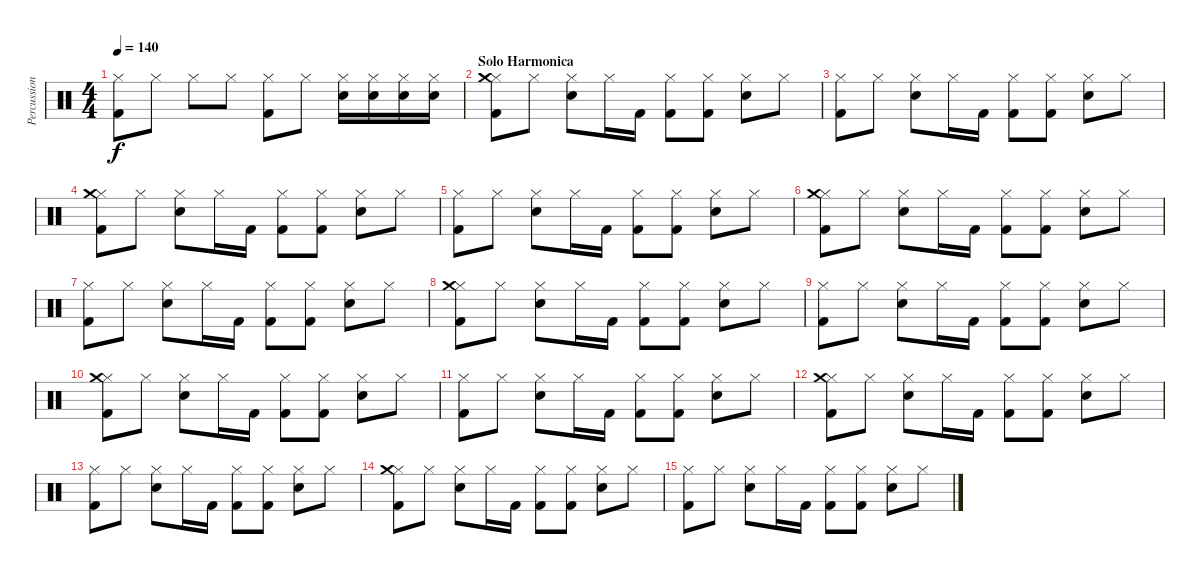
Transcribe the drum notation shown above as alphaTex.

\track ("Percussions" "Percussion") {instrument percussion}
\staff {score}
\articulation defaults
\ts (4 4)
\tempo 140
\clef neutral
\ks c
("Hi-Hat (closed)" "Kick (hit) 2").8{dy f} "Hi-Hat (closed)".8 "Hi-Hat (closed)".8 "Hi-Hat (closed)".8 ("Hi-Hat (closed)" "Kick (hit) 2").8 "Hi-Hat (closed)".8 ("Hi-Hat (closed)" "Electric Snare (hit)").16 ("Hi-Hat (closed)" "Electric Snare (hit)").16 ("Hi-Hat (closed)" "Electric Snare (hit)").16 ("Hi-Hat (closed)" "Electric Snare (hit)").16 |
\section ("" "Solo Harmonica")
("Hi-Hat (closed)" "Crash medium (hit)" "Kick (hit) 2").8 "Hi-Hat (closed)".8 ("Hi-Hat (closed)" "Electric Snare (hit)").8 "Hi-Hat (closed)".16 "Kick (hit) 2".16 ("Hi-Hat (closed)" "Kick (hit) 2").8 ("Hi-Hat (closed)" "Kick (hit) 2").8 ("Hi-Hat (closed)" "Electric Snare (hit)").8 "Hi-Hat (closed)".8 |
("Hi-Hat (closed)" "Kick (hit) 2").8 "Hi-Hat (closed)".8 ("Hi-Hat (closed)" "Electric Snare (hit)").8 "Hi-Hat (closed)".16 "Kick (hit) 2".16 ("Hi-Hat (closed)" "Kick (hit) 2").8 ("Hi-Hat (closed)" "Kick (hit) 2").8 ("Hi-Hat (closed)" "Electric Snare (hit)").8 "Hi-Hat (closed)".8 |
("Hi-Hat (closed)" "Crash medium (hit)" "Kick (hit) 2").8 "Hi-Hat (closed)".8 ("Hi-Hat (closed)" "Electric Snare (hit)").8 "Hi-Hat (closed)".16 "Kick (hit) 2".16 ("Hi-Hat (closed)" "Kick (hit) 2").8 ("Hi-Hat (closed)" "Kick (hit) 2").8 ("Hi-Hat (closed)" "Electric Snare (hit)").8 "Hi-Hat (closed)".8 |
("Hi-Hat (closed)" "Kick (hit) 2").8 "Hi-Hat (closed)".8 ("Hi-Hat (closed)" "Electric Snare (hit)").8 "Hi-Hat (closed)".16 "Kick (hit) 2".16 ("Hi-Hat (closed)" "Kick (hit) 2").8 ("Hi-Hat (closed)" "Kick (hit) 2").8 ("Hi-Hat (closed)" "Electric Snare (hit)").8 "Hi-Hat (closed)".8 |
("Hi-Hat (closed)" "Crash medium (hit)" "Kick (hit) 2").8 "Hi-Hat (closed)".8 ("Hi-Hat (closed)" "Electric Snare (hit)").8 "Hi-Hat (closed)".16 "Kick (hit) 2".16 ("Hi-Hat (closed)" "Kick (hit) 2").8 ("Hi-Hat (closed)" "Kick (hit) 2").8 ("Hi-Hat (closed)" "Electric Snare (hit)").8 "Hi-Hat (closed)".8 |
("Hi-Hat (closed)" "Kick (hit) 2").8 "Hi-Hat (closed)".8 ("Hi-Hat (closed)" "Electric Snare (hit)").8 "Hi-Hat (closed)".16 "Kick (hit) 2".16 ("Hi-Hat (closed)" "Kick (hit) 2").8 ("Hi-Hat (closed)" "Kick (hit) 2").8 ("Hi-Hat (closed)" "Electric Snare (hit)").8 "Hi-Hat (closed)".8 |
("Hi-Hat (closed)" "Crash medium (hit)" "Kick (hit) 2").8 "Hi-Hat (closed)".8 ("Hi-Hat (closed)" "Electric Snare (hit)").8 "Hi-Hat (closed)".16 "Kick (hit) 2".16 ("Hi-Hat (closed)" "Kick (hit) 2").8 ("Hi-Hat (closed)" "Kick (hit) 2").8 ("Hi-Hat (closed)" "Electric Snare (hit)").8 "Hi-Hat (closed)".8 |
("Hi-Hat (closed)" "Kick (hit) 2").8 "Hi-Hat (closed)".8 ("Hi-Hat (closed)" "Electric Snare (hit)").8 "Hi-Hat (closed)".16 "Kick (hit) 2".16 ("Hi-Hat (closed)" "Kick (hit) 2").8 ("Hi-Hat (closed)" "Kick (hit) 2").8 ("Hi-Hat (closed)" "Electric Snare (hit)").8 "Hi-Hat (closed)".8 |
("Hi-Hat (closed)" "Crash medium (hit)" "Kick (hit) 2").8 "Hi-Hat (closed)".8 ("Hi-Hat (closed)" "Electric Snare (hit)").8 "Hi-Hat (closed)".16 "Kick (hit) 2".16 ("Hi-Hat (closed)" "Kick (hit) 2").8 ("Hi-Hat (closed)" "Kick (hit) 2").8 ("Hi-Hat (closed)" "Electric Snare (hit)").8 "Hi-Hat (closed)".8 |
("Hi-Hat (closed)" "Kick (hit) 2").8 "Hi-Hat (closed)".8 ("Hi-Hat (closed)" "Electric Snare (hit)").8 "Hi-Hat (closed)".16 "Kick (hit) 2".16 ("Hi-Hat (closed)" "Kick (hit) 2").8 ("Hi-Hat (closed)" "Kick (hit) 2").8 ("Hi-Hat (closed)" "Electric Snare (hit)").8 "Hi-Hat (closed)".8 |
("Hi-Hat (closed)" "Crash medium (hit)" "Kick (hit) 2").8 "Hi-Hat (closed)".8 ("Hi-Hat (closed)" "Electric Snare (hit)").8 "Hi-Hat (closed)".16 "Kick (hit) 2".16 ("Hi-Hat (closed)" "Kick (hit) 2").8 ("Hi-Hat (closed)" "Kick (hit) 2").8 ("Hi-Hat (closed)" "Electric Snare (hit)").8 "Hi-Hat (closed)".8 |
("Hi-Hat (closed)" "Kick (hit) 2").8 "Hi-Hat (closed)".8 ("Hi-Hat (closed)" "Electric Snare (hit)").8 "Hi-Hat (closed)".16 "Kick (hit) 2".16 ("Hi-Hat (closed)" "Kick (hit) 2").8 ("Hi-Hat (closed)" "Kick (hit) 2").8 ("Hi-Hat (closed)" "Electric Snare (hit)").8 "Hi-Hat (closed)".8 |
("Hi-Hat (closed)" "Crash medium (hit)" "Kick (hit) 2").8 "Hi-Hat (closed)".8 ("Hi-Hat (closed)" "Electric Snare (hit)").8 "Hi-Hat (closed)".16 "Kick (hit) 2".16 ("Hi-Hat (closed)" "Kick (hit) 2").8 ("Hi-Hat (closed)" "Kick (hit) 2").8 ("Hi-Hat (closed)" "Electric Snare (hit)").8 "Hi-Hat (closed)".8 |
("Hi-Hat (closed)" "Kick (hit) 2").8 "Hi-Hat (closed)".8 ("Hi-Hat (closed)" "Electric Snare (hit)").8 "Hi-Hat (closed)".16 "Kick (hit) 2".16 ("Hi-Hat (closed)" "Kick (hit) 2").8 ("Hi-Hat (closed)" "Kick (hit) 2").8 ("Hi-Hat (closed)" "Electric Snare (hit)").8 "Hi-Hat (closed)".8
